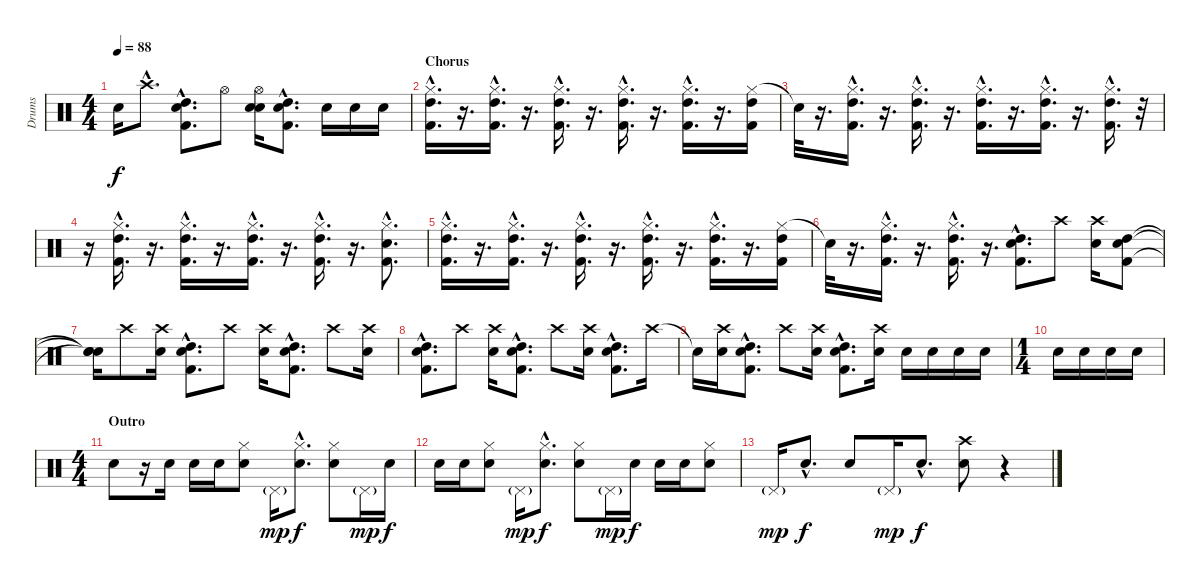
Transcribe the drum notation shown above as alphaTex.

\track ("Drums" "Drums") {instrument percussion}
\staff {score}
\articulation defaults
\ts (4 4)
\tempo 88
\clef neutral
\ks c "Snare (hit)"{t}.16{dy f} "Crash high (hit)"{hac}.8{d}
("Electric Snare (hit)"{hac} "High Tom (hit)"{hac} "Kick (hit) 2"{hac}).8{d} "Hi-Hat (open)".8 ("Hi-Hat (open)" "Electric Snare (hit)" "Electric Snare (hit)").16 ("Electric Snare (hit)"{hac} "High Tom (hit)"{hac} "Kick (hit) 2"{hac}).8{d} "Electric Snare (hit)".16 "Electric Snare (hit)".16 "Electric Snare (hit)".16 |
\section ("" "Chorus")
("Hi-Hat (closed)"{hac} "High Tom (hit)"{hac} "Kick (hit) 2"{hac}).16{d} r.16{d} ("Hi-Hat (closed)"{hac} "High Tom (hit)"{hac} "Kick (hit) 2"{hac}).16{d} r.16{d} ("Hi-Hat (closed)"{hac} "High Tom (hit)"{hac} "Kick (hit) 2"{hac}).16{d} r.16{d} ("Hi-Hat (closed)"{hac} "High Tom (hit)"{hac} "Kick (hit) 2"{hac}).16{d} r.16{d} ("Hi-Hat (closed)"{hac} "High Tom (hit)"{hac} "Kick (hit) 2"{hac}).16{d} r.16{d} ("Hi-Hat (closed)" "High Tom (hit)" "Kick (hit) 2").16 |
"Snare (hit)"{t}.32 r.16{d} ("Hi-Hat (closed)"{hac} "High Tom (hit)"{hac} "Kick (hit) 2"{hac}).16{d} r.16{d} ("Hi-Hat (closed)"{hac} "High Tom (hit)"{hac} "Kick (hit) 2"{hac}).16{d} r.16{d} ("Hi-Hat (closed)"{hac} "High Tom (hit)"{hac} "Kick (hit) 2"{hac}).16{d} r.16{d} ("Hi-Hat (closed)"{hac} "High Tom (hit)"{hac} "Kick (hit) 2"{hac}).16{d} r.16{d} ("Hi-Hat (closed)"{hac} "High Tom (hit)"{hac} "Kick (hit) 2"{hac}).16{d} r.32 |
r.16 ("Hi-Hat (closed)"{hac} "High Tom (hit)"{hac} "Kick (hit) 2"{hac}).16{d} r.16{d} ("Hi-Hat (closed)"{hac} "High Tom (hit)"{hac} "Kick (hit) 2"{hac}).16{d} r.16{d} ("Hi-Hat (closed)"{hac} "High Tom (hit)"{hac} "Kick (hit) 2"{hac}).16{d} r.16{d} ("Hi-Hat (closed)"{hac} "High Tom (hit)"{hac} "Kick (hit) 2"{hac}).16{d} r.16{d} ("Hi-Hat (closed)"{hac} "Electric Snare (hit)"{hac} "Kick (hit) 2"{hac}).8{d} |
("Hi-Hat (closed)"{hac} "High Tom (hit)"{hac} "Kick (hit) 2"{hac}).16{d} r.16{d} ("Hi-Hat (closed)"{hac} "High Tom (hit)"{hac} "Kick (hit) 2"{hac}).16{d} r.16{d} ("Hi-Hat (closed)"{hac} "High Tom (hit)"{hac} "Kick (hit) 2"{hac}).16{d} r.16{d} ("Hi-Hat (closed)"{hac} "High Tom (hit)"{hac} "Kick (hit) 2"{hac}).16{d} r.16{d} ("Hi-Hat (closed)"{hac} "High Tom (hit)"{hac} "Kick (hit) 2"{hac}).16{d} r.16{d} ("Hi-Hat (closed)" "High Tom (hit)" "Kick (hit) 2").16 |
"Snare (hit)"{t}.32 r.16{d} ("Hi-Hat (closed)"{hac} "High Tom (hit)"{hac} "Kick (hit) 2"{hac}).16{d} r.16{d} ("Hi-Hat (closed)"{hac} "High Tom (hit)"{hac} "Kick (hit) 2"{hac}).16{d} r.16{d} ("High Tom (hit)"{hac} "Electric Snare (hit)"{hac} "Kick (hit) 2"{hac}).8{d} "Crash high (hit)".8 ("Crash high (hit)" "Electric Snare (hit)").16 ("High Tom (hit)" "Electric Snare (hit)" "Kick (hit) 2").8 |
("Snare (hit)"{t} "Snare (hit)"{t} "Snare (hit)"{t}).16 "Crash high (hit)".8 ("Crash high (hit)" "Electric Snare (hit)").16 ("High Tom (hit)"{hac} "Electric Snare (hit)"{hac} "Kick (hit) 2"{hac}).8{d} "Crash high (hit)".8 ("Crash high (hit)" "Electric Snare (hit)").16 ("High Tom (hit)"{hac} "Electric Snare (hit)"{hac} "Kick (hit) 2"{hac}).8{d} "Crash high (hit)".8 ("Crash high (hit)" "Electric Snare (hit)").16 |
("High Tom (hit)"{hac} "Electric Snare (hit)"{hac} "Kick (hit) 2"{hac}).8{d} "Crash high (hit)".8 ("Crash high (hit)" "Electric Snare (hit)").16 ("High Tom (hit)"{hac} "Electric Snare (hit)"{hac} "Kick (hit) 2"{hac}).8{d} "Crash high (hit)".8 ("Crash high (hit)" "Electric Snare (hit)").16 ("High Tom (hit)"{hac} "Electric Snare (hit)"{hac} "Kick (hit) 2"{hac}).8{d} "Crash high (hit)".16 |
"Snare (hit)"{t}.16 ("Crash high (hit)" "Electric Snare (hit)").16 ("High Tom (hit)"{hac} "Electric Snare (hit)"{hac} "Kick (hit) 2"{hac}).8{d} "Crash high (hit)".8 ("Crash high (hit)" "Electric Snare (hit)").16 ("High Tom (hit)"{hac} "Electric Snare (hit)"{hac} "Kick (hit) 2"{hac}).8{d} ("Crash high (hit)" "Electric Snare (hit)").16 "Electric Snare (hit)".16 "Electric Snare (hit)".16 "Electric Snare (hit)".16 "Electric Snare (hit)".16 |
\ts (1 4)
"Electric Snare (hit)".16 "Electric Snare (hit)".16 "Electric Snare (hit)".16 "Electric Snare (hit)".16 |
\ts (4 4)
\section ("" "Outro")
"Electric Snare (hit)".8 r.16 "Electric Snare (hit)".16 "Electric Snare (hit)".16 "Electric Snare (hit)".16 ("Hi-Hat (closed)" "Electric Snare (hit)").8 "Pedal Hi-Hat (hit)"{g}.16{dy mp} ("Hi-Hat (closed)"{hac} "Electric Snare (hit)"{hac}).8{d dy f} ("Hi-Hat (closed)" "Electric Snare (hit)").8 "Pedal Hi-Hat (hit)"{g}.16{dy mp} "Electric Snare (hit)".16{dy f} |
"Electric Snare (hit)".16 "Electric Snare (hit)".16 ("Hi-Hat (closed)" "Electric Snare (hit)").8 "Pedal Hi-Hat (hit)"{g}.16{dy mp} ("Hi-Hat (closed)"{hac} "Electric Snare (hit)"{hac}).8{d dy f} ("Hi-Hat (closed)" "Electric Snare (hit)").8 "Pedal Hi-Hat (hit)"{g}.16{dy mp} "Electric Snare (hit)".16{dy f} "Electric Snare (hit)".16 "Electric Snare (hit)".16 ("Hi-Hat (closed)" "Electric Snare (hit)").8 |
"Pedal Hi-Hat (hit)"{g}.16{dy mp} "Electric Snare (hit)"{hac}.8{d dy f} "Electric Snare (hit)".8 "Pedal Hi-Hat (hit)"{g}.16{dy mp} "Electric Snare (hit)"{hac}.8{d dy f} ("Crash high (hit)" "Electric Snare (hit)").8 r.4
